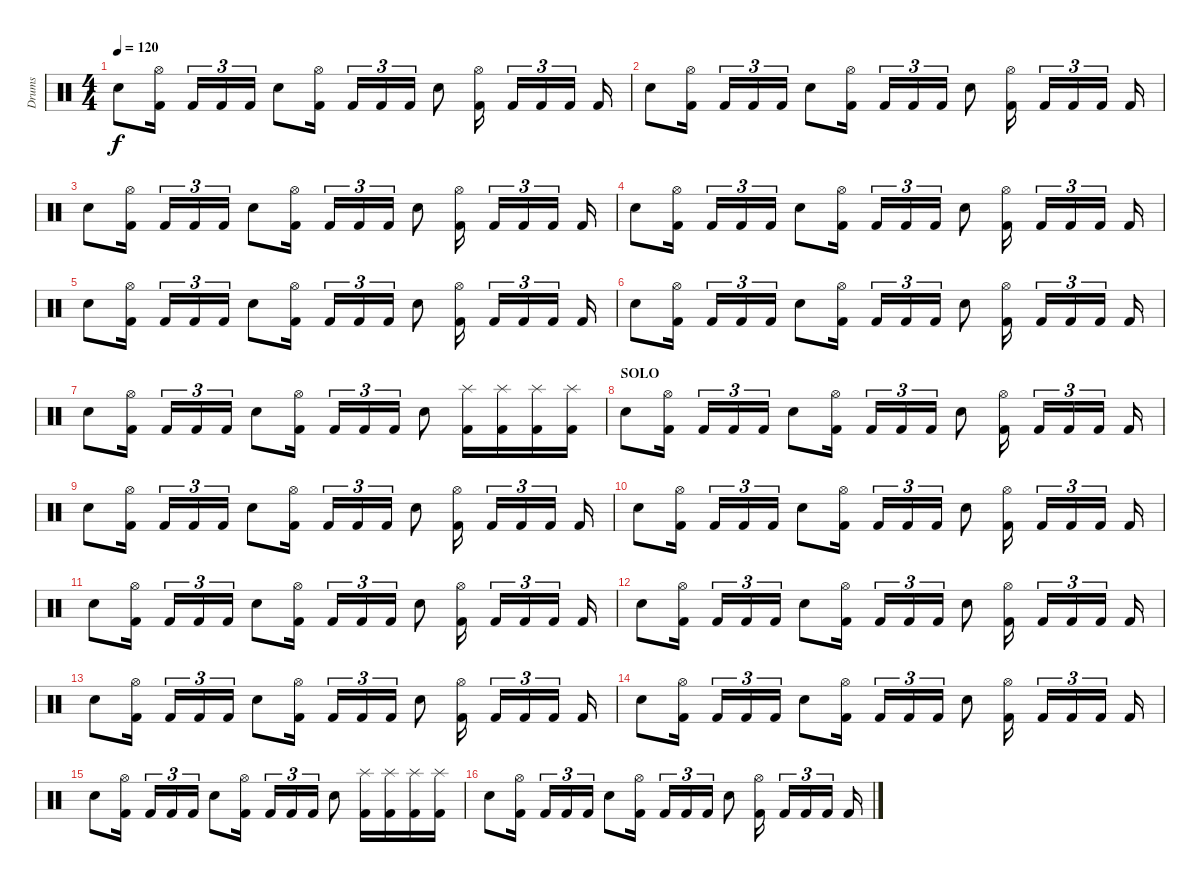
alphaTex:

\track ("Drums" "Drums") {instrument percussion}
\staff {score}
\articulation defaults
\ts (4 4)
\tempo 120
\clef neutral
\ks c "Electric Snare (hit)".8{dy f}
("Hi-Hat (open)" "Kick (hit) 2").16 "Kick (hit) 2".16{tu (3 2)} "Kick (hit) 2".16{tu (3 2)} "Kick (hit) 2".16{tu (3 2)} "Electric Snare (hit)".8 ("Hi-Hat (open)" "Kick (hit) 2").16 "Kick (hit) 2".16{tu (3 2)} "Kick (hit) 2".16{tu (3 2)} "Kick (hit) 2".16{tu (3 2)} "Electric Snare (hit)".8 ("Hi-Hat (open)" "Kick (hit) 2").16 "Kick (hit) 2".16{tu (3 2)} "Kick (hit) 2".16{tu (3 2)} "Kick (hit) 2".16{tu (3 2)} "Kick (hit) 2".16 |
"Electric Snare (hit)".8 ("Hi-Hat (open)" "Kick (hit) 2").16 "Kick (hit) 2".16{tu (3 2)} "Kick (hit) 2".16{tu (3 2)} "Kick (hit) 2".16{tu (3 2)} "Electric Snare (hit)".8 ("Hi-Hat (open)" "Kick (hit) 2").16 "Kick (hit) 2".16{tu (3 2)} "Kick (hit) 2".16{tu (3 2)} "Kick (hit) 2".16{tu (3 2)} "Electric Snare (hit)".8 ("Hi-Hat (open)" "Kick (hit) 2").16 "Kick (hit) 2".16{tu (3 2)} "Kick (hit) 2".16{tu (3 2)} "Kick (hit) 2".16{tu (3 2)} "Kick (hit) 2".16 |
"Electric Snare (hit)".8 ("Hi-Hat (open)" "Kick (hit) 2").16 "Kick (hit) 2".16{tu (3 2)} "Kick (hit) 2".16{tu (3 2)} "Kick (hit) 2".16{tu (3 2)} "Electric Snare (hit)".8 ("Hi-Hat (open)" "Kick (hit) 2").16 "Kick (hit) 2".16{tu (3 2)} "Kick (hit) 2".16{tu (3 2)} "Kick (hit) 2".16{tu (3 2)} "Electric Snare (hit)".8 ("Hi-Hat (open)" "Kick (hit) 2").16 "Kick (hit) 2".16{tu (3 2)} "Kick (hit) 2".16{tu (3 2)} "Kick (hit) 2".16{tu (3 2)} "Kick (hit) 2".16 |
"Electric Snare (hit)".8 ("Hi-Hat (open)" "Kick (hit) 2").16 "Kick (hit) 2".16{tu (3 2)} "Kick (hit) 2".16{tu (3 2)} "Kick (hit) 2".16{tu (3 2)} "Electric Snare (hit)".8 ("Hi-Hat (open)" "Kick (hit) 2").16 "Kick (hit) 2".16{tu (3 2)} "Kick (hit) 2".16{tu (3 2)} "Kick (hit) 2".16{tu (3 2)} "Electric Snare (hit)".8 ("Hi-Hat (open)" "Kick (hit) 2").16 "Kick (hit) 2".16{tu (3 2)} "Kick (hit) 2".16{tu (3 2)} "Kick (hit) 2".16{tu (3 2)} "Kick (hit) 2".16 |
"Electric Snare (hit)".8 ("Hi-Hat (open)" "Kick (hit) 2").16 "Kick (hit) 2".16{tu (3 2)} "Kick (hit) 2".16{tu (3 2)} "Kick (hit) 2".16{tu (3 2)} "Electric Snare (hit)".8 ("Hi-Hat (open)" "Kick (hit) 2").16 "Kick (hit) 2".16{tu (3 2)} "Kick (hit) 2".16{tu (3 2)} "Kick (hit) 2".16{tu (3 2)} "Electric Snare (hit)".8 ("Hi-Hat (open)" "Kick (hit) 2").16 "Kick (hit) 2".16{tu (3 2)} "Kick (hit) 2".16{tu (3 2)} "Kick (hit) 2".16{tu (3 2)} "Kick (hit) 2".16 |
"Electric Snare (hit)".8 ("Hi-Hat (open)" "Kick (hit) 2").16 "Kick (hit) 2".16{tu (3 2)} "Kick (hit) 2".16{tu (3 2)} "Kick (hit) 2".16{tu (3 2)} "Electric Snare (hit)".8 ("Hi-Hat (open)" "Kick (hit) 2").16 "Kick (hit) 2".16{tu (3 2)} "Kick (hit) 2".16{tu (3 2)} "Kick (hit) 2".16{tu (3 2)} "Electric Snare (hit)".8 ("Hi-Hat (open)" "Kick (hit) 2").16 "Kick (hit) 2".16{tu (3 2)} "Kick (hit) 2".16{tu (3 2)} "Kick (hit) 2".16{tu (3 2)} "Kick (hit) 2".16 |
"Electric Snare (hit)".8 ("Hi-Hat (open)" "Kick (hit) 2").16 "Kick (hit) 2".16{tu (3 2)} "Kick (hit) 2".16{tu (3 2)} "Kick (hit) 2".16{tu (3 2)} "Electric Snare (hit)".8 ("Hi-Hat (open)" "Kick (hit) 2").16 "Kick (hit) 2".16{tu (3 2)} "Kick (hit) 2".16{tu (3 2)} "Kick (hit) 2".16{tu (3 2)} "Electric Snare (hit)".8 ("Splash (hit)" "Kick (hit) 2").16 ("Splash (hit)" "Kick (hit) 2").16 ("Splash (hit)" "Kick (hit) 2").16 ("Splash (hit)" "Kick (hit) 2").16 |
\section ("" "SOLO")
"Electric Snare (hit)".8 ("Hi-Hat (open)" "Kick (hit) 2").16 "Kick (hit) 2".16{tu (3 2)} "Kick (hit) 2".16{tu (3 2)} "Kick (hit) 2".16{tu (3 2)} "Electric Snare (hit)".8 ("Hi-Hat (open)" "Kick (hit) 2").16 "Kick (hit) 2".16{tu (3 2)} "Kick (hit) 2".16{tu (3 2)} "Kick (hit) 2".16{tu (3 2)} "Electric Snare (hit)".8 ("Hi-Hat (open)" "Kick (hit) 2").16 "Kick (hit) 2".16{tu (3 2)} "Kick (hit) 2".16{tu (3 2)} "Kick (hit) 2".16{tu (3 2)} "Kick (hit) 2".16 |
"Electric Snare (hit)".8 ("Hi-Hat (open)" "Kick (hit) 2").16 "Kick (hit) 2".16{tu (3 2)} "Kick (hit) 2".16{tu (3 2)} "Kick (hit) 2".16{tu (3 2)} "Electric Snare (hit)".8 ("Hi-Hat (open)" "Kick (hit) 2").16 "Kick (hit) 2".16{tu (3 2)} "Kick (hit) 2".16{tu (3 2)} "Kick (hit) 2".16{tu (3 2)} "Electric Snare (hit)".8 ("Hi-Hat (open)" "Kick (hit) 2").16 "Kick (hit) 2".16{tu (3 2)} "Kick (hit) 2".16{tu (3 2)} "Kick (hit) 2".16{tu (3 2)} "Kick (hit) 2".16 |
"Electric Snare (hit)".8 ("Hi-Hat (open)" "Kick (hit) 2").16 "Kick (hit) 2".16{tu (3 2)} "Kick (hit) 2".16{tu (3 2)} "Kick (hit) 2".16{tu (3 2)} "Electric Snare (hit)".8 ("Hi-Hat (open)" "Kick (hit) 2").16 "Kick (hit) 2".16{tu (3 2)} "Kick (hit) 2".16{tu (3 2)} "Kick (hit) 2".16{tu (3 2)} "Electric Snare (hit)".8 ("Hi-Hat (open)" "Kick (hit) 2").16 "Kick (hit) 2".16{tu (3 2)} "Kick (hit) 2".16{tu (3 2)} "Kick (hit) 2".16{tu (3 2)} "Kick (hit) 2".16 |
"Electric Snare (hit)".8 ("Hi-Hat (open)" "Kick (hit) 2").16 "Kick (hit) 2".16{tu (3 2)} "Kick (hit) 2".16{tu (3 2)} "Kick (hit) 2".16{tu (3 2)} "Electric Snare (hit)".8 ("Hi-Hat (open)" "Kick (hit) 2").16 "Kick (hit) 2".16{tu (3 2)} "Kick (hit) 2".16{tu (3 2)} "Kick (hit) 2".16{tu (3 2)} "Electric Snare (hit)".8 ("Hi-Hat (open)" "Kick (hit) 2").16 "Kick (hit) 2".16{tu (3 2)} "Kick (hit) 2".16{tu (3 2)} "Kick (hit) 2".16{tu (3 2)} "Kick (hit) 2".16 |
"Electric Snare (hit)".8 ("Hi-Hat (open)" "Kick (hit) 2").16 "Kick (hit) 2".16{tu (3 2)} "Kick (hit) 2".16{tu (3 2)} "Kick (hit) 2".16{tu (3 2)} "Electric Snare (hit)".8 ("Hi-Hat (open)" "Kick (hit) 2").16 "Kick (hit) 2".16{tu (3 2)} "Kick (hit) 2".16{tu (3 2)} "Kick (hit) 2".16{tu (3 2)} "Electric Snare (hit)".8 ("Hi-Hat (open)" "Kick (hit) 2").16 "Kick (hit) 2".16{tu (3 2)} "Kick (hit) 2".16{tu (3 2)} "Kick (hit) 2".16{tu (3 2)} "Kick (hit) 2".16 |
"Electric Snare (hit)".8 ("Hi-Hat (open)" "Kick (hit) 2").16 "Kick (hit) 2".16{tu (3 2)} "Kick (hit) 2".16{tu (3 2)} "Kick (hit) 2".16{tu (3 2)} "Electric Snare (hit)".8 ("Hi-Hat (open)" "Kick (hit) 2").16 "Kick (hit) 2".16{tu (3 2)} "Kick (hit) 2".16{tu (3 2)} "Kick (hit) 2".16{tu (3 2)} "Electric Snare (hit)".8 ("Hi-Hat (open)" "Kick (hit) 2").16 "Kick (hit) 2".16{tu (3 2)} "Kick (hit) 2".16{tu (3 2)} "Kick (hit) 2".16{tu (3 2)} "Kick (hit) 2".16 |
"Electric Snare (hit)".8 ("Hi-Hat (open)" "Kick (hit) 2").16 "Kick (hit) 2".16{tu (3 2)} "Kick (hit) 2".16{tu (3 2)} "Kick (hit) 2".16{tu (3 2)} "Electric Snare (hit)".8 ("Hi-Hat (open)" "Kick (hit) 2").16 "Kick (hit) 2".16{tu (3 2)} "Kick (hit) 2".16{tu (3 2)} "Kick (hit) 2".16{tu (3 2)} "Electric Snare (hit)".8 ("Hi-Hat (open)" "Kick (hit) 2").16 "Kick (hit) 2".16{tu (3 2)} "Kick (hit) 2".16{tu (3 2)} "Kick (hit) 2".16{tu (3 2)} "Kick (hit) 2".16 |
"Electric Snare (hit)".8 ("Hi-Hat (open)" "Kick (hit) 2").16 "Kick (hit) 2".16{tu (3 2)} "Kick (hit) 2".16{tu (3 2)} "Kick (hit) 2".16{tu (3 2)} "Electric Snare (hit)".8 ("Hi-Hat (open)" "Kick (hit) 2").16 "Kick (hit) 2".16{tu (3 2)} "Kick (hit) 2".16{tu (3 2)} "Kick (hit) 2".16{tu (3 2)} "Electric Snare (hit)".8 ("Splash (hit)" "Kick (hit) 2").16 ("Splash (hit)" "Kick (hit) 2").16 ("Splash (hit)" "Kick (hit) 2").16 ("Splash (hit)" "Kick (hit) 2").16 |
"Electric Snare (hit)".8 ("Hi-Hat (open)" "Kick (hit) 2").16 "Kick (hit) 2".16{tu (3 2)} "Kick (hit) 2".16{tu (3 2)} "Kick (hit) 2".16{tu (3 2)} "Electric Snare (hit)".8 ("Hi-Hat (open)" "Kick (hit) 2").16 "Kick (hit) 2".16{tu (3 2)} "Kick (hit) 2".16{tu (3 2)} "Kick (hit) 2".16{tu (3 2)} "Electric Snare (hit)".8 ("Hi-Hat (open)" "Kick (hit) 2").16 "Kick (hit) 2".16{tu (3 2)} "Kick (hit) 2".16{tu (3 2)} "Kick (hit) 2".16{tu (3 2)} "Kick (hit) 2".16
